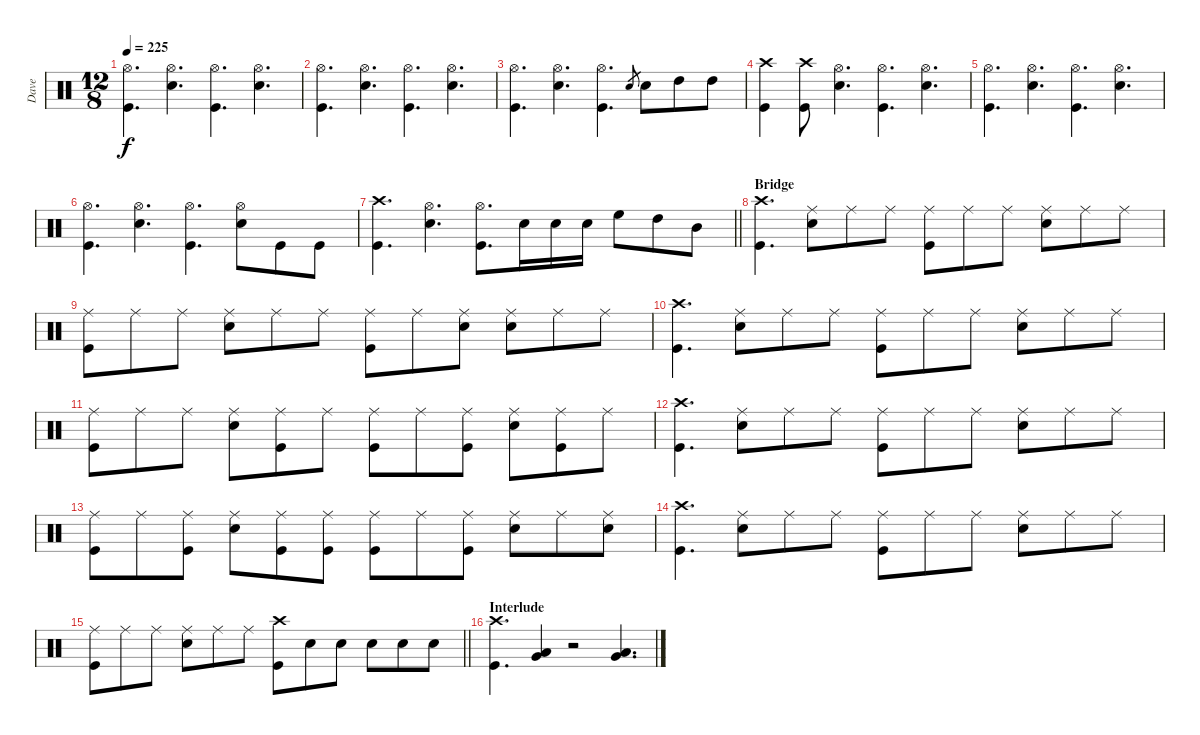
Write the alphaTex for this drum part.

\track ("Dave" "Dave") {instrument percussion}
\staff {score}
\articulation defaults
\ts (12 8)
\tempo 225
\clef neutral
\ks c
("Hi-Hat (open)" "Kick (hit)").4{d dy f} ("Hi-Hat (open)" "Snare (hit) 2").4{d} ("Hi-Hat (open)" "Kick (hit)").4{d} ("Hi-Hat (open)" "Snare (hit) 2").4{d} |
("Hi-Hat (open)" "Kick (hit)").4{d} ("Hi-Hat (open)" "Snare (hit) 2").4{d} ("Hi-Hat (open)" "Kick (hit)").4{d} ("Hi-Hat (open)" "Snare (hit) 2").4{d} |
("Hi-Hat (open)" "Kick (hit)").4{d} ("Hi-Hat (open)" "Snare (hit) 2").4{d} ("Hi-Hat (open)" "Kick (hit)").4{d} "Snare (hit) 2".8{gr} "Snare (hit) 2".8 "High Tom (hit)".8 "High Tom (hit)".8 |
("Crash high (hit)" "Kick (hit)").4 ("Crash high (hit)" "Kick (hit)").8 ("Hi-Hat (open)" "Snare (hit) 2").4{d} ("Hi-Hat (open)" "Kick (hit)").4{d} ("Hi-Hat (open)" "Snare (hit) 2").4{d} |
("Hi-Hat (open)" "Kick (hit)").4{d} ("Hi-Hat (open)" "Snare (hit) 2").4{d} ("Hi-Hat (open)" "Kick (hit)").4{d} ("Hi-Hat (open)" "Snare (hit) 2").4{d} |
("Hi-Hat (open)" "Kick (hit)").4{d} ("Hi-Hat (open)" "Snare (hit) 2").4{d} ("Hi-Hat (open)" "Kick (hit)").4{d} ("Hi-Hat (open)" "Snare (hit) 2").8 "Kick (hit)".8 "Kick (hit)".8 |
\barLineRight lightlight
("Crash high (hit)" "Kick (hit)").4{d} ("Hi-Hat (open)" "Snare (hit) 2").4{d} ("Hi-Hat (open)" "Kick (hit)").8{d} "Snare (hit) 2".16 "Snare (hit) 2".16 "Snare (hit) 2".16 "High Floor Tom (hit)".8 "High Tom (hit)".8 "Mid Tom (hit)".8 |
\section ("" "Bridge")
("Crash high (hit)" "Kick (hit)").4{d} ("Ride (middle)" "Snare (hit) 2").8 "Ride (middle)".8 "Ride (middle)".8 ("Ride (middle)" "Kick (hit)").8 "Ride (middle)".8 "Ride (middle)".8 ("Ride (middle)" "Snare (hit) 2").8 "Ride (middle)".8 "Ride (middle)".8 |
("Ride (middle)" "Kick (hit)").8 "Ride (middle)".8 "Ride (middle)".8 ("Ride (middle)" "Snare (hit) 2").8 "Ride (middle)".8 "Ride (middle)".8 ("Ride (middle)" "Kick (hit)").8 "Ride (middle)".8 ("Ride (middle)" "Snare (hit) 2").8 ("Ride (middle)" "Snare (hit) 2").8 "Ride (middle)".8 "Ride (middle)".8 |
("Crash high (hit)" "Kick (hit)").4{d} ("Ride (middle)" "Snare (hit) 2").8 "Ride (middle)".8 "Ride (middle)".8 ("Ride (middle)" "Kick (hit)").8 "Ride (middle)".8 "Ride (middle)".8 ("Ride (middle)" "Snare (hit) 2").8 "Ride (middle)".8 "Ride (middle)".8 |
("Ride (middle)" "Kick (hit)").8 "Ride (middle)".8 "Ride (middle)".8 ("Ride (middle)" "Snare (hit) 2").8 ("Ride (middle)" "Kick (hit)").8 "Ride (middle)".8 ("Ride (middle)" "Kick (hit)").8 "Ride (middle)".8 ("Ride (middle)" "Kick (hit)").8 ("Ride (middle)" "Snare (hit) 2").8 ("Ride (middle)" "Kick (hit)").8 "Ride (middle)".8 |
("Crash high (hit)" "Kick (hit)").4{d} ("Ride (middle)" "Snare (hit) 2").8 "Ride (middle)".8 "Ride (middle)".8 ("Ride (middle)" "Kick (hit)").8 "Ride (middle)".8 "Ride (middle)".8 ("Ride (middle)" "Snare (hit) 2").8 "Ride (middle)".8 "Ride (middle)".8 |
("Ride (middle)" "Kick (hit)").8 "Ride (middle)".8 ("Ride (middle)" "Kick (hit)").8 ("Ride (middle)" "Snare (hit) 2").8 ("Ride (middle)" "Kick (hit)").8 ("Ride (middle)" "Kick (hit)").8 ("Ride (middle)" "Kick (hit)").8 "Ride (middle)".8 ("Ride (middle)" "Kick (hit)").8 ("Ride (middle)" "Snare (hit) 2").8 "Ride (middle)".8 ("Ride (middle)" "Snare (hit) 2").8 |
("Crash high (hit)" "Kick (hit)").4{d} ("Ride (middle)" "Snare (hit) 2").8 "Ride (middle)".8 "Ride (middle)".8 ("Ride (middle)" "Kick (hit)").8 "Ride (middle)".8 "Ride (middle)".8 ("Ride (middle)" "Snare (hit) 2").8 "Ride (middle)".8 "Ride (middle)".8 |
\barLineRight lightlight
("Ride (middle)" "Kick (hit)").8 "Ride (middle)".8 "Ride (middle)".8 ("Ride (middle)" "Snare (hit) 2").8 "Ride (middle)".8 "Ride (middle)".8 ("Crash high (hit)" "Kick (hit)").8 "Snare (hit) 2".8 "Snare (hit) 2".8 "Snare (hit) 2".8 "Snare (hit) 2".8 "Snare (hit) 2".8 |
\section ("" "Interlude")
("Crash high (hit)" "Kick (hit)").4{d} ("Very Low Tom (hit)" "Low Floor Tom (hit)").4 r.2 ("Very Low Tom (hit)" "Low Floor Tom (hit)").4{d}
